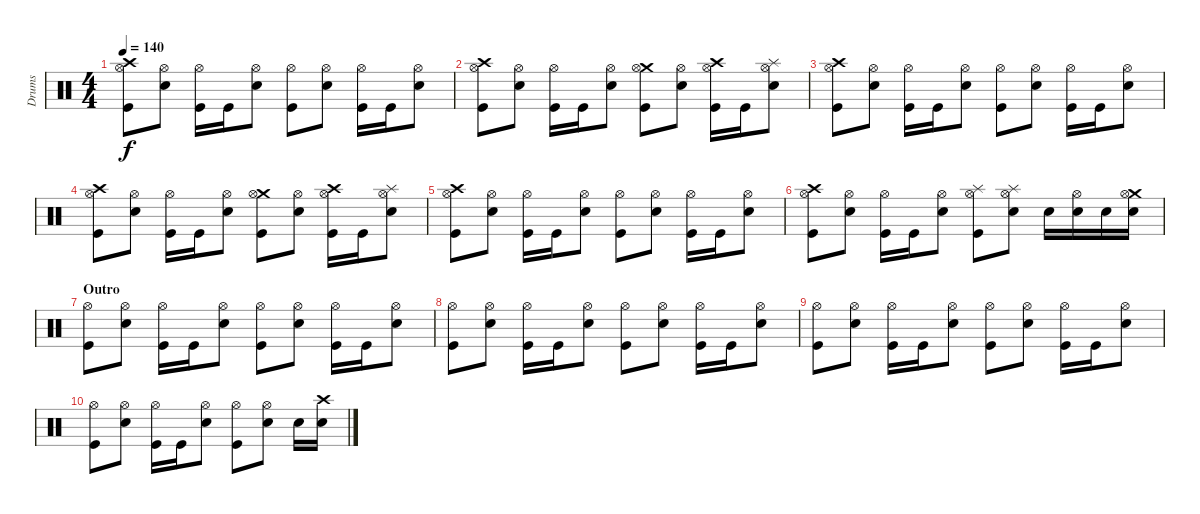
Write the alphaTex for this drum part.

\track ("Drums" "Drums") {instrument percussion}
\staff {score}
\articulation defaults
\ts (4 4)
\tempo 140
\clef neutral
\ks c
("Crash high (hit)" "Kick (hit)" "Hi-Hat (open)").8{dy f} ("Snare (hit) 2" "Hi-Hat (open)").8 ("Kick (hit)" "Hi-Hat (open)").16 "Kick (hit)".16 ("Snare (hit) 2" "Hi-Hat (open)").8 ("Kick (hit)" "Hi-Hat (open)").8 ("Snare (hit) 2" "Hi-Hat (open)").8 ("Kick (hit)" "Hi-Hat (open)").16 "Kick (hit)".16 ("Snare (hit) 2" "Hi-Hat (open)").8 |
("Crash high (hit)" "Kick (hit)" "Hi-Hat (open)").8 ("Snare (hit) 2" "Hi-Hat (open)").8 ("Kick (hit)" "Hi-Hat (open)").16 "Kick (hit)".16 ("Snare (hit) 2" "Hi-Hat (open)").8 ("Crash medium (hit)" "Kick (hit)" "Hi-Hat (open)").8 ("Snare (hit) 2" "Hi-Hat (open)").8 ("Crash high (hit)" "Kick (hit)" "Hi-Hat (open)").16 "Kick (hit)".16 ("Splash (hit)" "Snare (hit) 2" "Hi-Hat (open)").8 |
("Crash high (hit)" "Kick (hit)" "Hi-Hat (open)").8 ("Snare (hit) 2" "Hi-Hat (open)").8 ("Kick (hit)" "Hi-Hat (open)").16 "Kick (hit)".16 ("Snare (hit) 2" "Hi-Hat (open)").8 ("Kick (hit)" "Hi-Hat (open)").8 ("Snare (hit) 2" "Hi-Hat (open)").8 ("Kick (hit)" "Hi-Hat (open)").16 "Kick (hit)".16 ("Snare (hit) 2" "Hi-Hat (open)").8 |
("Crash high (hit)" "Kick (hit)" "Hi-Hat (open)").8 ("Snare (hit) 2" "Hi-Hat (open)").8 ("Kick (hit)" "Hi-Hat (open)").16 "Kick (hit)".16 ("Snare (hit) 2" "Hi-Hat (open)").8 ("Crash medium (hit)" "Kick (hit)" "Hi-Hat (open)").8 ("Snare (hit) 2" "Hi-Hat (open)").8 ("Crash high (hit)" "Kick (hit)" "Hi-Hat (open)").16 "Kick (hit)".16 ("Splash (hit)" "Snare (hit) 2" "Hi-Hat (open)").8 |
("Crash high (hit)" "Kick (hit)" "Hi-Hat (open)").8 ("Snare (hit) 2" "Hi-Hat (open)").8 ("Kick (hit)" "Hi-Hat (open)").16 "Kick (hit)".16 ("Snare (hit) 2" "Hi-Hat (open)").8 ("Kick (hit)" "Hi-Hat (open)").8 ("Snare (hit) 2" "Hi-Hat (open)").8 ("Kick (hit)" "Hi-Hat (open)").16 "Kick (hit)".16 ("Snare (hit) 2" "Hi-Hat (open)").8 |
("Crash high (hit)" "Kick (hit)" "Hi-Hat (open)").8 ("Snare (hit) 2" "Hi-Hat (open)").8 ("Kick (hit)" "Hi-Hat (open)").16 "Kick (hit)".16 ("Snare (hit) 2" "Hi-Hat (open)").8 ("Splash (hit)" "Kick (hit)" "Hi-Hat (open)").8 ("Splash (hit)" "Snare (hit) 2" "Hi-Hat (open)").8 "Electric Snare (hit)".16 ("Electric Snare (hit)" "Hi-Hat (open)").16 "Electric Snare (hit)".16 ("Crash medium (hit)" "Electric Snare (hit)" "Hi-Hat (open)").16 |
\section ("" "Outro")
("Kick (hit)" "Hi-Hat (open)").8 ("Snare (hit) 2" "Hi-Hat (open)").8 ("Kick (hit)" "Hi-Hat (open)").16 "Kick (hit)".16 ("Snare (hit) 2" "Hi-Hat (open)").8 ("Kick (hit)" "Hi-Hat (open)").8 ("Snare (hit) 2" "Hi-Hat (open)").8 ("Kick (hit)" "Hi-Hat (open)").16 "Kick (hit)".16 ("Snare (hit) 2" "Hi-Hat (open)").8 |
("Kick (hit)" "Hi-Hat (open)").8 ("Snare (hit) 2" "Hi-Hat (open)").8 ("Kick (hit)" "Hi-Hat (open)").16 "Kick (hit)".16 ("Snare (hit) 2" "Hi-Hat (open)").8 ("Kick (hit)" "Hi-Hat (open)").8 ("Snare (hit) 2" "Hi-Hat (open)").8 ("Kick (hit)" "Hi-Hat (open)").16 "Kick (hit)".16 ("Snare (hit) 2" "Hi-Hat (open)").8 |
("Kick (hit)" "Hi-Hat (open)").8 ("Snare (hit) 2" "Hi-Hat (open)").8 ("Kick (hit)" "Hi-Hat (open)").16 "Kick (hit)".16 ("Snare (hit) 2" "Hi-Hat (open)").8 ("Kick (hit)" "Hi-Hat (open)").8 ("Snare (hit) 2" "Hi-Hat (open)").8 ("Kick (hit)" "Hi-Hat (open)").16 "Kick (hit)".16 ("Snare (hit) 2" "Hi-Hat (open)").8 |
("Kick (hit)" "Hi-Hat (open)").8 ("Snare (hit) 2" "Hi-Hat (open)").8 ("Kick (hit)" "Hi-Hat (open)").16 "Kick (hit)".16 ("Snare (hit) 2" "Hi-Hat (open)").8 ("Kick (hit)" "Hi-Hat (open)").8 ("Snare (hit) 2" "Hi-Hat (open)").8 "Snare (hit) 2".16 ("Snare (hit) 2" "Crash high (hit)").16
